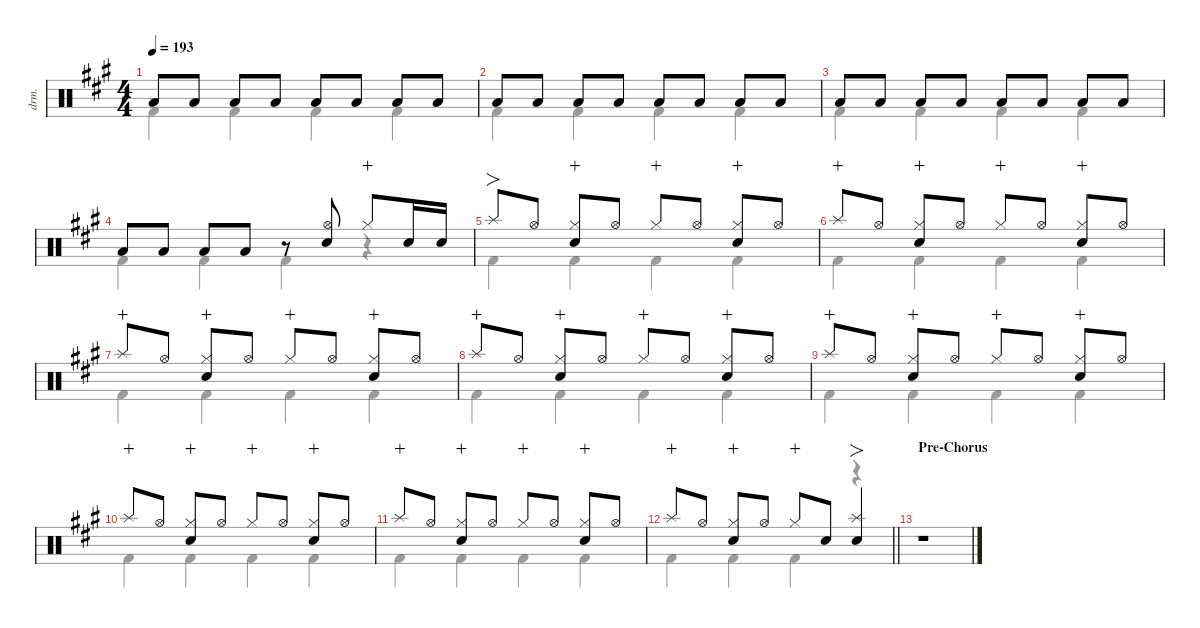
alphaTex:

\defaultSystemsLayout 4
\hideDynamics
\bracketExtendMode nobrackets
\track ("伊地知虹夏" "drm.") {instrument percussion}
\staff {score}
\articulation defaults
\voice
\ts (4 4)
\tempo 193
\clef neutral
\ks a "Low Tom (hit)"{acc forcenatural}.8{dy mf beam Up} "Low Tom (hit)"{acc forcenatural}.8{beam Up} "Low Tom (hit)"{acc forcenatural}.8{beam Up} "Low Tom (hit)"{acc forcenatural}.8{beam Up} "Low Tom (hit)"{acc forcenatural}.8{beam Up} "Low Tom (hit)"{acc forcenatural}.8{beam Up} "Low Tom (hit)"{acc forcenatural}.8{beam Up} "Low Tom (hit)"{acc forcenatural}.8{beam Up}
|
"Low Tom (hit)"{acc forcenatural}.8{beam Up} "Low Tom (hit)"{acc forcenatural}.8{beam Up} "Low Tom (hit)"{acc forcenatural}.8{beam Up} "Low Tom (hit)"{acc forcenatural}.8{beam Up} "Low Tom (hit)"{acc forcenatural}.8{beam Up} "Low Tom (hit)"{acc forcenatural}.8{beam Up} "Low Tom (hit)"{acc forcenatural}.8{beam Up} "Low Tom (hit)"{acc forcenatural}.8{beam Up} |
"Low Tom (hit)"{acc forcenatural}.8{beam Up} "Low Tom (hit)"{acc forcenatural}.8{beam Up} "Low Tom (hit)"{acc forcenatural}.8{beam Up} "Low Tom (hit)"{acc forcenatural}.8{beam Up} "Low Tom (hit)"{acc forcenatural}.8{beam Up} "Low Tom (hit)"{acc forcenatural}.8{beam Up} "Low Tom (hit)"{acc forcenatural}.8{beam Up} "Low Tom (hit)"{acc forcenatural}.8{beam Up} |
"Low Tom (hit)"{acc forcenatural}.8{beam Up} "Low Tom (hit)"{acc forcenatural}.8{beam Up} "Low Tom (hit)"{acc forcenatural}.8{beam Up} "Low Tom (hit)"{acc forcenatural}.8{beam Up} r.8{beam Up} ("Hi-Hat (open)"{acc forcenatural} "Snare (hit) 2"{acc forcenatural}).8{beam Up} "Hi-Hat (closed)"{acc forcenatural}.8{wahc beam Up} "Snare (hit) 2"{acc forcenatural}.16{beam Up} "Snare (hit) 2"{acc forcenatural}.16{beam Up} |
"Splash (hit)"{acc forcenatural}.8{fo beam Up} "Hi-Hat (open)"{acc forcenatural}.8{beam Up} ("Hi-Hat (closed)"{acc forcenatural} "Snare (hit) 2"{acc forcenatural}).8{wahc beam Up} "Hi-Hat (open)"{acc forcenatural}.8{beam Up} "Hi-Hat (closed)"{acc forcenatural}.8{wahc beam Up} "Hi-Hat (open)"{acc forcenatural}.8{beam Up} ("Hi-Hat (closed)"{acc forcenatural} "Snare (hit) 2"{acc forcenatural}).8{wahc beam Up} "Hi-Hat (open)"{acc forcenatural}.8{beam Up} |
"Splash (hit)"{acc forcenatural}.8{wahc beam Up} "Hi-Hat (open)"{acc forcenatural}.8{beam Up} ("Hi-Hat (closed)"{acc forcenatural} "Snare (hit) 2"{acc forcenatural}).8{wahc beam Up} "Hi-Hat (open)"{acc forcenatural}.8{beam Up} "Hi-Hat (closed)"{acc forcenatural}.8{wahc beam Up} "Hi-Hat (open)"{acc forcenatural}.8{beam Up} ("Hi-Hat (closed)"{acc forcenatural} "Snare (hit) 2"{acc forcenatural}).8{wahc beam Up} "Hi-Hat (open)"{acc forcenatural}.8{beam Up} |
"Splash (hit)"{acc forcenatural}.8{wahc beam Up} "Hi-Hat (open)"{acc forcenatural}.8{beam Up} ("Hi-Hat (closed)"{acc forcenatural} "Snare (hit) 2"{acc forcenatural}).8{wahc beam Up} "Hi-Hat (open)"{acc forcenatural}.8{beam Up} "Hi-Hat (closed)"{acc forcenatural}.8{wahc beam Up} "Hi-Hat (open)"{acc forcenatural}.8{beam Up} ("Hi-Hat (closed)"{acc forcenatural} "Snare (hit) 2"{acc forcenatural}).8{wahc beam Up} "Hi-Hat (open)"{acc forcenatural}.8{beam Up} |
"Splash (hit)"{acc forcenatural}.8{wahc beam Up} "Hi-Hat (open)"{acc forcenatural}.8{beam Up} ("Hi-Hat (closed)"{acc forcenatural} "Snare (hit) 2"{acc forcenatural}).8{wahc beam Up} "Hi-Hat (open)"{acc forcenatural}.8{beam Up} "Hi-Hat (closed)"{acc forcenatural}.8{wahc beam Up} "Hi-Hat (open)"{acc forcenatural}.8{beam Up} ("Hi-Hat (closed)"{acc forcenatural} "Snare (hit) 2"{acc forcenatural}).8{wahc beam Up} "Hi-Hat (open)"{acc forcenatural}.8{beam Up} |
"Splash (hit)"{acc forcenatural}.8{wahc beam Up} "Hi-Hat (open)"{acc forcenatural}.8{beam Up} ("Hi-Hat (closed)"{acc forcenatural} "Snare (hit) 2"{acc forcenatural}).8{wahc beam Up} "Hi-Hat (open)"{acc forcenatural}.8{beam Up} "Hi-Hat (closed)"{acc forcenatural}.8{wahc beam Up} "Hi-Hat (open)"{acc forcenatural}.8{beam Up} ("Hi-Hat (closed)"{acc forcenatural} "Snare (hit) 2"{acc forcenatural}).8{wahc beam Up} "Hi-Hat (open)"{acc forcenatural}.8{beam Up} |
"Splash (hit)"{acc forcenatural}.8{wahc beam Up} "Hi-Hat (open)"{acc forcenatural}.8{beam Up} ("Hi-Hat (closed)"{acc forcenatural} "Snare (hit) 2"{acc forcenatural}).8{wahc beam Up} "Hi-Hat (open)"{acc forcenatural}.8{beam Up} "Hi-Hat (closed)"{acc forcenatural}.8{wahc beam Up} "Hi-Hat (open)"{acc forcenatural}.8{beam Up} ("Hi-Hat (closed)"{acc forcenatural} "Snare (hit) 2"{acc forcenatural}).8{wahc beam Up} "Hi-Hat (open)"{acc forcenatural}.8{beam Up} |
"Splash (hit)"{acc forcenatural}.8{wahc beam Up} "Hi-Hat (open)"{acc forcenatural}.8{beam Up} ("Hi-Hat (closed)"{acc forcenatural} "Snare (hit) 2"{acc forcenatural}).8{wahc beam Up} "Hi-Hat (open)"{acc forcenatural}.8{beam Up} "Hi-Hat (closed)"{acc forcenatural}.8{wahc beam Up} "Hi-Hat (open)"{acc forcenatural}.8{beam Up} ("Hi-Hat (closed)"{acc forcenatural} "Snare (hit) 2"{acc forcenatural}).8{wahc beam Up} "Hi-Hat (open)"{acc forcenatural}.8{beam Up} |
\barLineRight lightlight "Splash (hit)"{acc forcenatural}.8{wahc beam Up} "Hi-Hat (open)"{acc forcenatural}.8{beam Up}
("Hi-Hat (closed)"{acc forcenatural} "Snare (hit) 2"{acc forcenatural}).8{wahc beam Up} "Hi-Hat (open)"{acc forcenatural}.8{beam Up} "Hi-Hat (closed)"{acc forcenatural}.8{wahc beam Up} "Snare (hit) 2"{acc forcenatural}.8{beam Up} ("Splash (hit)"{acc forcenatural} "Snare (hit) 2"{acc forcenatural}).4{fo beam Up} |
\section ("" "Pre-Chorus")
r.1{beam Down} |
|
|
\voice
\clef neutral
\ottava regular
\simile none
\ks a "Kick (hit) 2"{acc forcenatural}.4{dy mf beam Down} "Kick (hit) 2"{acc forcenatural}.4{beam Down} "Kick (hit) 2"{acc forcenatural}.4{beam Down} "Kick (hit) 2"{acc forcenatural}.4{beam Down}
|
"Kick (hit) 2"{acc forcenatural}.4{beam Down} "Kick (hit) 2"{acc forcenatural}.4{beam Down} "Kick (hit) 2"{acc forcenatural}.4{beam Down} "Kick (hit) 2"{acc forcenatural}.4{beam Down} |
"Kick (hit) 2"{acc forcenatural}.4{beam Down} "Kick (hit) 2"{acc forcenatural}.4{beam Down} "Kick (hit) 2"{acc forcenatural}.4{beam Down} "Kick (hit) 2"{acc forcenatural}.4{beam Down} |
"Kick (hit) 2"{acc forcenatural}.4{beam Down} "Kick (hit) 2"{acc forcenatural}.4{beam Down} "Kick (hit) 2"{acc forcenatural}.4{beam Down} r.4{beam Down} |
"Kick (hit) 2"{acc forcenatural}.4{beam Down} "Kick (hit) 2"{acc forcenatural}.4{beam Down} "Kick (hit) 2"{acc forcenatural}.4{beam Down} "Kick (hit) 2"{acc forcenatural}.4{beam Down} |
"Kick (hit) 2"{acc forcenatural}.4{beam Down} "Kick (hit) 2"{acc forcenatural}.4{beam Down} "Kick (hit) 2"{acc forcenatural}.4{beam Down} "Kick (hit) 2"{acc forcenatural}.4{beam Down} |
"Kick (hit) 2"{acc forcenatural}.4{beam Down} "Kick (hit) 2"{acc forcenatural}.4{beam Down} "Kick (hit) 2"{acc forcenatural}.4{beam Down} "Kick (hit) 2"{acc forcenatural}.4{beam Down} |
"Kick (hit) 2"{acc forcenatural}.4{beam Down} "Kick (hit) 2"{acc forcenatural}.4{beam Down} "Kick (hit) 2"{acc forcenatural}.4{beam Down} "Kick (hit) 2"{acc forcenatural}.4{beam Down} |
"Kick (hit) 2"{acc forcenatural}.4{beam Down} "Kick (hit) 2"{acc forcenatural}.4{beam Down} "Kick (hit) 2"{acc forcenatural}.4{beam Down} "Kick (hit) 2"{acc forcenatural}.4{beam Down} |
"Kick (hit) 2"{acc forcenatural}.4{beam Down} "Kick (hit) 2"{acc forcenatural}.4{beam Down} "Kick (hit) 2"{acc forcenatural}.4{beam Down} "Kick (hit) 2"{acc forcenatural}.4{beam Down} |
"Kick (hit) 2"{acc forcenatural}.4{beam Down} "Kick (hit) 2"{acc forcenatural}.4{beam Down} "Kick (hit) 2"{acc forcenatural}.4{beam Down} "Kick (hit) 2"{acc forcenatural}.4{beam Down} |
\barLineRight lightlight "Kick (hit) 2"{acc forcenatural}.4{beam Down} "Kick (hit) 2"{acc forcenatural}.4{beam Down} "Kick (hit) 2"{acc forcenatural}.4{beam Down}
r.4{beam Down} |
|
|
|
